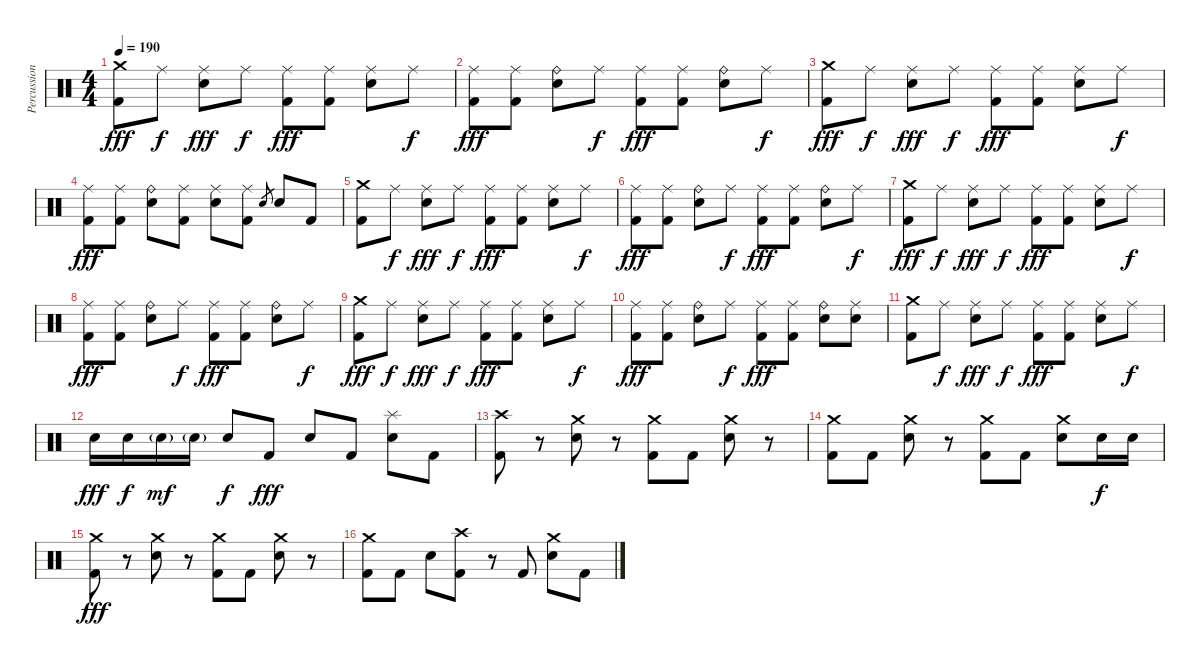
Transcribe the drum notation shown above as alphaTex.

\track ("Percussions" "Percussion") {instrument percussion}
\staff {score}
\articulation defaults
\ts (4 4)
\tempo 190
\clef neutral
\ks c
("Crash medium (hit)" "Kick (hit) 2").8{dy fff} "Ride (middle)".8{dy f} ("Ride (middle)" "Electric Snare (hit)").8{dy fff} "Ride (middle)".8{dy f} ("Ride (middle)" "Kick (hit) 2").8{dy fff} ("Ride (middle)" "Kick (hit) 2").8 ("Ride (middle)" "Electric Snare (hit)").8 "Ride (middle)".8{dy f} |
("Ride (middle)" "Kick (hit) 2").8{dy fff} ("Ride (middle)" "Kick (hit) 2").8 ("Ride (bell)" "Electric Snare (hit)").8 "Ride (middle)".8{dy f} ("Ride (middle)" "Kick (hit) 2").8{dy fff} ("Ride (middle)" "Kick (hit) 2").8 ("Ride (bell)" "Electric Snare (hit)").8 "Ride (middle)".8{dy f} |
("Crash medium (hit)" "Kick (hit) 2").8{dy fff} "Ride (middle)".8{dy f} ("Ride (middle)" "Electric Snare (hit)").8{dy fff} "Ride (middle)".8{dy f} ("Ride (middle)" "Kick (hit) 2").8{dy fff} ("Ride (middle)" "Kick (hit) 2").8 ("Ride (middle)" "Electric Snare (hit)").8 "Ride (middle)".8{dy f} |
("Ride (middle)" "Kick (hit) 2").8{dy fff} ("Ride (middle)" "Kick (hit) 2").8 ("Ride (bell)" "Electric Snare (hit)").8 ("Ride (middle)" "Kick (hit) 2").8 ("Ride (middle)" "Electric Snare (hit)").8 ("Ride (middle)" "Kick (hit) 2").8 "Electric Snare (hit)".8{gr} "Electric Snare (hit)".8 "Kick (hit) 2".8 |
("Crash medium (hit)" "Kick (hit) 2").8 "Ride (middle)".8{dy f} ("Ride (middle)" "Electric Snare (hit)").8{dy fff} "Ride (middle)".8{dy f} ("Ride (middle)" "Kick (hit) 2").8{dy fff} ("Ride (middle)" "Kick (hit) 2").8 ("Ride (middle)" "Electric Snare (hit)").8 "Ride (middle)".8{dy f} |
("Ride (middle)" "Kick (hit) 2").8{dy fff} ("Ride (middle)" "Kick (hit) 2").8 ("Ride (bell)" "Electric Snare (hit)").8 "Ride (middle)".8{dy f} ("Ride (middle)" "Kick (hit) 2").8{dy fff} ("Ride (middle)" "Kick (hit) 2").8 ("Ride (bell)" "Electric Snare (hit)").8 "Ride (middle)".8{dy f} |
("Crash medium (hit)" "Kick (hit) 2").8{dy fff} "Ride (middle)".8{dy f} ("Ride (middle)" "Electric Snare (hit)").8{dy fff} "Ride (middle)".8{dy f} ("Ride (middle)" "Kick (hit) 2").8{dy fff} ("Ride (middle)" "Kick (hit) 2").8 ("Ride (middle)" "Electric Snare (hit)").8 "Ride (middle)".8{dy f} |
("Ride (middle)" "Kick (hit) 2").8{dy fff} ("Ride (middle)" "Kick (hit) 2").8 ("Ride (bell)" "Electric Snare (hit)").8 "Ride (middle)".8{dy f} ("Ride (middle)" "Kick (hit) 2").8{dy fff} ("Ride (middle)" "Kick (hit) 2").8 ("Ride (bell)" "Electric Snare (hit)").8 "Ride (middle)".8{dy f} |
("Crash medium (hit)" "Kick (hit) 2").8{dy fff} "Ride (middle)".8{dy f} ("Ride (middle)" "Electric Snare (hit)").8{dy fff} "Ride (middle)".8{dy f} ("Ride (middle)" "Kick (hit) 2").8{dy fff} ("Ride (middle)" "Kick (hit) 2").8 ("Ride (middle)" "Electric Snare (hit)").8 "Ride (middle)".8{dy f} |
("Ride (middle)" "Kick (hit) 2").8{dy fff} ("Ride (middle)" "Kick (hit) 2").8 ("Ride (bell)" "Electric Snare (hit)").8 "Ride (middle)".8{dy f} ("Ride (middle)" "Kick (hit) 2").8{dy fff} ("Ride (middle)" "Kick (hit) 2").8 ("Ride (bell)" "Electric Snare (hit)").8 ("Ride (middle)" "Electric Snare (hit)").8 |
("Crash medium (hit)" "Kick (hit) 2").8 "Ride (middle)".8{dy f} ("Ride (middle)" "Electric Snare (hit)").8{dy fff} "Ride (middle)".8{dy f} ("Ride (middle)" "Kick (hit) 2").8{dy fff} ("Ride (middle)" "Kick (hit) 2").8 ("Ride (middle)" "Electric Snare (hit)").8 "Ride (middle)".8{dy f} |
"Electric Snare (hit)".16{dy fff} "Electric Snare (hit)".16{dy f} "Electric Snare (hit)"{g}.16{dy mf} "Electric Snare (hit)"{g}.16 "Electric Snare (hit)".8{dy f} "Kick (hit) 2".8{dy fff} "Electric Snare (hit)".8 "Kick (hit) 2".8 ("Splash (hit)" "Electric Snare (hit)").8 "Kick (hit) 2".8 |
("Crash high (hit)" "Kick (hit) 2").8 r.8 ("Crash medium (hit)" "Electric Snare (hit)").8 r.8 ("Crash medium (hit)" "Kick (hit) 2").8 "Kick (hit) 2".8 ("Crash medium (hit)" "Electric Snare (hit)").8 r.8 |
("Crash medium (hit)" "Kick (hit) 2").8 "Kick (hit) 2".8 ("Crash medium (hit)" "Electric Snare (hit)").8 r.8 ("Crash medium (hit)" "Kick (hit) 2").8 "Kick (hit) 2".8 ("Crash medium (hit)" "Electric Snare (hit)").8 "Electric Snare (hit)".16{dy f} "Electric Snare (hit)".16 |
("Crash medium (hit)" "Kick (hit) 2").8{dy fff} r.8 ("Crash medium (hit)" "Electric Snare (hit)").8 r.8 ("Crash medium (hit)" "Kick (hit) 2").8 "Kick (hit) 2".8 ("Crash medium (hit)" "Electric Snare (hit)").8 r.8 |
("Crash medium (hit)" "Kick (hit) 2").8 "Kick (hit) 2".8 "Electric Snare (hit)".8 ("Crash high (hit)" "Kick (hit) 2").8 r.8 "Kick (hit) 2".8 ("Crash medium (hit)" "Electric Snare (hit)").8 "Kick (hit) 2".8
